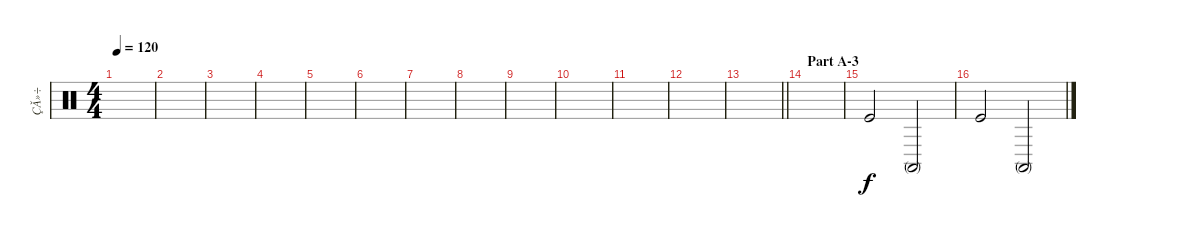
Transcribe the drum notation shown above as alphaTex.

\track ("ÇĂ»÷" "ÇĂ»÷") {instrument percussion}
\staff {score}
\articulation defaults
\ts (4 4)
\tempo 120
\clef neutral
\ks c
|
|
|
|
|
|
|
|
|
|
|
|
\barLineRight lightlight
|
\section ("" "Part A-3")
|
"Kick (hit)".2 "Conga high (mute)".2 |
"Kick (hit)".2 "Conga high (mute)".2
